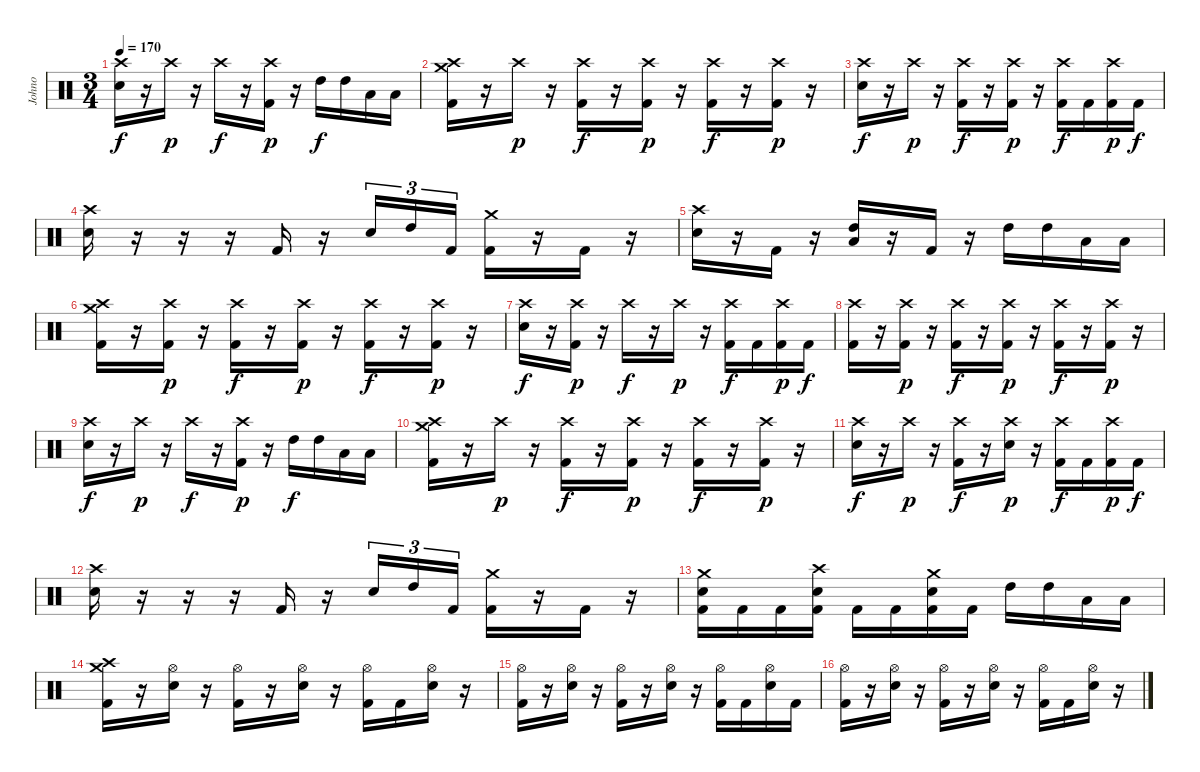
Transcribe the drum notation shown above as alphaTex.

\track ("Johno" "Johno") {instrument percussion}
\staff {score}
\articulation defaults
\ts (3 4)
\tempo 170
\clef neutral
\ks c
("Crash high (hit)" "Electric Snare (hit)").16{dy f} r.16 "Crash high (hit)".16{dy p} r.16 "Crash high (hit)".16{dy f} r.16 ("Crash high (hit)" "Kick (hit) 2").16{dy p} r.16 "High Tom (hit)".16{dy f} "High Tom (hit)".16 "Low Floor Tom (hit)".16 "Low Floor Tom (hit)".16 |
("Crash medium (hit)" "Crash high (hit)" "Kick (hit) 2").16 r.16 "Crash high (hit)".16{dy p} r.16 ("Crash high (hit)" "Kick (hit) 2").16{dy f} r.16 ("Crash high (hit)" "Kick (hit) 2").16{dy p} r.16 ("Crash high (hit)" "Kick (hit) 2").16{dy f} r.16 ("Crash high (hit)" "Kick (hit) 2").16{dy p} r.16 |
("Crash high (hit)" "Electric Snare (hit)").16{dy f} r.16 "Crash high (hit)".16{dy p} r.16 ("Crash high (hit)" "Kick (hit) 2").16{dy f} r.16 ("Crash high (hit)" "Kick (hit) 2").16{dy p} r.16 ("Crash high (hit)" "Kick (hit) 2").16{dy f} "Kick (hit) 2".16 ("Crash high (hit)" "Kick (hit) 2").16{dy p} "Kick (hit) 2".16{dy f} |
("Crash high (hit)" "Electric Snare (hit)").16 r.16 r.16 r.16 "Kick (hit) 2".16 r.16 "Electric Snare (hit)".16{tu (3 2)} "High Tom (hit)".16{tu (3 2)} "Kick (hit) 2".16{tu (3 2)} ("Crash medium (hit)" "Kick (hit) 2").16 r.16 "Kick (hit) 2".16 r.16 |
("Crash high (hit)" "Electric Snare (hit)").16 r.16 "Kick (hit) 2".16 r.16 ("Low Floor Tom (hit)" "High Tom (hit)").16 r.16 "Kick (hit) 2".16 r.16 "High Tom (hit)".16 "High Tom (hit)".16 "Low Floor Tom (hit)".16 "Low Floor Tom (hit)".16 |
("Crash medium (hit)" "Crash high (hit)" "Kick (hit) 2").16 r.16 ("Crash high (hit)" "Kick (hit) 2").16{dy p} r.16 ("Crash high (hit)" "Kick (hit) 2").16{dy f} r.16 ("Crash high (hit)" "Kick (hit) 2").16{dy p} r.16 ("Crash high (hit)" "Kick (hit) 2").16{dy f} r.16 ("Crash high (hit)" "Kick (hit) 2").16{dy p} r.16 |
("Crash high (hit)" "Electric Snare (hit)").16{dy f} r.16 ("Crash high (hit)" "Kick (hit) 2").16{dy p} r.16 "Crash high (hit)".16{dy f} r.16 "Crash high (hit)".16{dy p} r.16 ("Crash high (hit)" "Kick (hit) 2").16{dy f} "Kick (hit) 2".16 ("Crash high (hit)" "Kick (hit) 2").16{dy p} "Kick (hit) 2".16{dy f} |
("Crash high (hit)" "Kick (hit) 2").16 r.16 ("Crash high (hit)" "Kick (hit) 2").16{dy p} r.16 ("Crash high (hit)" "Kick (hit) 2").16{dy f} r.16 ("Crash high (hit)" "Kick (hit) 2").16{dy p} r.16 ("Crash high (hit)" "Kick (hit) 2").16{dy f} r.16 ("Crash high (hit)" "Kick (hit) 2").16{dy p} r.16 |
("Crash high (hit)" "Electric Snare (hit)").16{dy f} r.16 "Crash high (hit)".16{dy p} r.16 "Crash high (hit)".16{dy f} r.16 ("Crash high (hit)" "Kick (hit) 2").16{dy p} r.16 "High Tom (hit)".16{dy f} "High Tom (hit)".16 "Low Floor Tom (hit)".16 "Low Floor Tom (hit)".16 |
("Crash medium (hit)" "Crash high (hit)" "Kick (hit) 2").16 r.16 "Crash high (hit)".16{dy p} r.16 ("Crash high (hit)" "Kick (hit) 2").16{dy f} r.16 ("Crash high (hit)" "Kick (hit) 2").16{dy p} r.16 ("Crash high (hit)" "Kick (hit) 2").16{dy f} r.16 ("Crash high (hit)" "Kick (hit) 2").16{dy p} r.16 |
("Crash high (hit)" "Electric Snare (hit)").16{dy f} r.16 "Crash high (hit)".16{dy p} r.16 ("Crash high (hit)" "Kick (hit) 2").16{dy f} r.16 ("Crash high (hit)" "Electric Snare (hit)").16{dy p} r.16 ("Crash high (hit)" "Kick (hit) 2").16{dy f} "Kick (hit) 2".16 ("Crash high (hit)" "Kick (hit) 2").16{dy p} "Kick (hit) 2".16{dy f} |
("Crash high (hit)" "Electric Snare (hit)").16 r.16 r.16 r.16 "Kick (hit) 2".16 r.16 "Electric Snare (hit)".16{tu (3 2)} "High Tom (hit)".16{tu (3 2)} "Kick (hit) 2".16{tu (3 2)} ("Crash medium (hit)" "Kick (hit) 2").16 r.16 "Kick (hit) 2".16 r.16 |
("Crash medium (hit)" "Electric Snare (hit)" "Kick (hit) 2").16 "Kick (hit) 2".16 "Kick (hit) 2".16 ("Crash high (hit)" "Electric Snare (hit)" "Kick (hit) 2").16 "Kick (hit) 2".16 "Kick (hit) 2".16 ("Crash medium (hit)" "Electric Snare (hit)" "Kick (hit) 2").16 "Kick (hit) 2".16 "High Tom (hit)".16 "High Tom (hit)".16 "Low Floor Tom (hit)".16 "Low Floor Tom (hit)".16 |
("Crash high (hit)" "Crash medium (hit)" "Kick (hit) 2").16 r.16 ("Hi-Hat (open)" "Electric Snare (hit)").16 r.16 ("Hi-Hat (open)" "Kick (hit) 2").16 r.16 ("Hi-Hat (open)" "Electric Snare (hit)").16 r.16 ("Hi-Hat (open)" "Kick (hit) 2").16 "Kick (hit) 2".16 ("Hi-Hat (open)" "Electric Snare (hit)").16 r.16 |
("Hi-Hat (open)" "Kick (hit) 2").16 r.16 ("Hi-Hat (open)" "Electric Snare (hit)").16 r.16 ("Hi-Hat (open)" "Kick (hit) 2").16 r.16 ("Hi-Hat (open)" "Electric Snare (hit)").16 r.16 ("Hi-Hat (open)" "Kick (hit) 2").16 "Kick (hit) 2".16 ("Hi-Hat (open)" "Electric Snare (hit)").16 "Kick (hit) 2".16 |
("Hi-Hat (open)" "Kick (hit) 2").16 r.16 ("Hi-Hat (open)" "Electric Snare (hit)").16 r.16 ("Hi-Hat (open)" "Kick (hit) 2").16 r.16 ("Hi-Hat (open)" "Electric Snare (hit)").16 r.16 ("Hi-Hat (open)" "Kick (hit) 2").16 "Kick (hit) 2".16 ("Hi-Hat (open)" "Electric Snare (hit)").16 r.16
